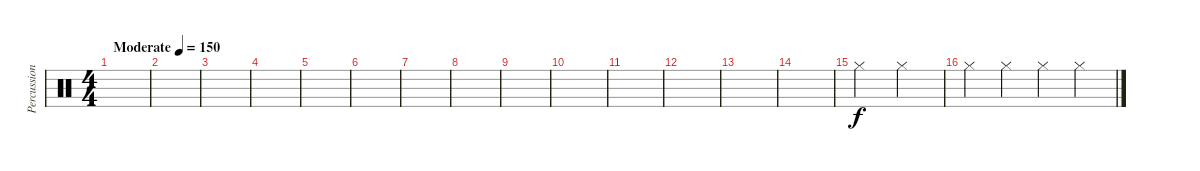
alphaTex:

\track ("Percussions" "Percussion") {instrument percussion}
\staff {score}
\articulation defaults
\ts (4 4)
\tempo (150 "Moderate")
\clef neutral
\ks c
|
|
|
|
|
|
|
|
|
|
|
|
|
|
"Hi-Hat (closed)".2 "Hi-Hat (closed)".2 |
"Hi-Hat (closed)".4 "Hi-Hat (closed)".4 "Hi-Hat (closed)".4 "Hi-Hat (closed)".4
